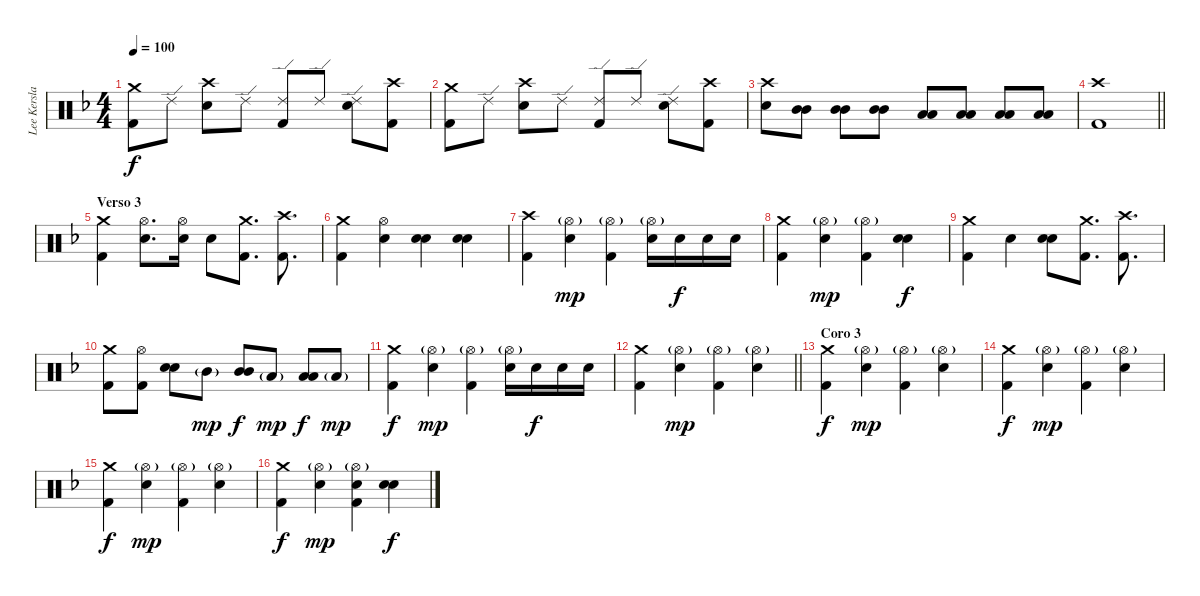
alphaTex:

\track ("Lee Kerslake - Drums" "Lee Kersla") {instrument percussion}
\staff {score}
\articulation defaults
\ts (4 4)
\tempo 100
\clef neutral
\ks dminor
("Crash medium (hit)" "Kick (hit) 2").8{dy f} "Ride (edge) 2".8 ("Crash high (hit)" "Snare (hit) 2").8 "Ride (edge) 2".8 ("Ride (edge) 2" "Kick (hit) 2").8 "Ride (edge) 2".8 ("Ride (edge) 2" "Snare (hit) 2").8 ("Crash high (hit)" "Kick (hit) 2").8 |
("Crash medium (hit)" "Kick (hit) 2").8 "Ride (edge) 2".8 ("Crash high (hit)" "Snare (hit) 2").8 "Ride (edge) 2".8 ("Ride (edge) 2" "Kick (hit) 2").8 "Ride (edge) 2".8 ("Ride (edge) 2" "Snare (hit) 2").8 ("Crash high (hit)" "Kick (hit) 2").8 |
("Crash high (hit)" "Snare (hit) 2").8 ("Mid Tom (hit)" "Mid Tom (hit)").8{bd 240} ("Mid Tom (hit)" "Mid Tom (hit)").8{bd 240} ("Mid Tom (hit)" "Mid Tom (hit)").8{bd 240} ("Low Tom (hit)" "Low Tom (hit)").8{bd 240} ("Low Tom (hit)" "Low Tom (hit)").8{bd 240} ("Low Tom (hit)" "Low Tom (hit)").8{bd 240} ("Low Tom (hit)" "Low Tom (hit)").8{bd 240} |
\barLineRight lightlight
("Crash high (hit)" "Kick (hit) 2").1 |
\section ("" "Verso 3")
("Crash medium (hit)" "Kick (hit) 2").4 ("Hi-Hat (open)" "Snare (hit) 2").8{d} ("Hi-Hat (open)" "Snare (hit) 2").16 "Snare (hit) 2".8 ("Crash medium (hit)" "Kick (hit) 2").8{d} ("Crash high (hit)" "Kick (hit) 2").8{d} |
("Crash medium (hit)" "Kick (hit) 2").4 ("Hi-Hat (open)" "Snare (hit) 2").4 ("Snare (hit) 2" "Snare (hit) 2").4{bd 240} ("Snare (hit) 2" "Snare (hit) 2").4{bd 240} |
("Crash high (hit)" "Kick (hit) 2").4 ("Hi-Hat (open)"{g} "Snare (hit) 2").4{dy mp} ("Hi-Hat (open)"{g} "Kick (hit) 2").4 ("Hi-Hat (open)"{g} "Snare (hit) 2").16 "Snare (hit) 2".16{dy f} "Snare (hit) 2".16 "Snare (hit) 2".16 |
("Crash medium (hit)" "Kick (hit) 2").4 ("Hi-Hat (open)"{g} "Snare (hit) 2").4{dy mp} ("Hi-Hat (open)"{g} "Kick (hit) 2").4 ("Snare (hit) 2" "Snare (hit) 2").4{bd 240 dy f} |
("Crash medium (hit)" "Kick (hit) 2").4 "Snare (hit) 2".4 ("Snare (hit) 2" "Snare (hit) 2").8{bd 240} ("Crash medium (hit)" "Kick (hit) 2").8{d} ("Crash high (hit)" "Kick (hit) 2").8{d} |
("Crash medium (hit)" "Kick (hit) 2").8 ("Hi-Hat (open)" "Kick (hit) 2").8 ("Snare (hit) 2" "Snare (hit) 2").8{bd 240} "Mid Tom (hit)"{g}.8{dy mp} ("Mid Tom (hit)" "Mid Tom (hit)").8{bd 240 dy f} "Low Tom (hit)"{g}.8{dy mp} ("Low Tom (hit)" "Low Tom (hit)").8{bd 240 dy f} "Low Tom (hit)"{g}.8{dy mp} |
("Crash medium (hit)" "Kick (hit) 2").4{dy f} ("Hi-Hat (open)"{g} "Snare (hit) 2").4{dy mp} ("Hi-Hat (open)"{g} "Kick (hit) 2").4 ("Hi-Hat (open)"{g} "Snare (hit) 2").16 "Snare (hit) 2".16{dy f} "Snare (hit) 2".16 "Snare (hit) 2".16 |
\barLineRight lightlight
("Crash medium (hit)" "Kick (hit) 2").4 ("Hi-Hat (open)"{g} "Snare (hit) 2").4{dy mp} ("Hi-Hat (open)"{g} "Kick (hit) 2").4 ("Hi-Hat (open)"{g} "Snare (hit) 2").4 |
\section ("" "Coro 3")
("Crash medium (hit)" "Kick (hit) 2").4{dy f} ("Hi-Hat (open)"{g} "Snare (hit) 2").4{dy mp} ("Hi-Hat (open)"{g} "Kick (hit) 2").4 ("Hi-Hat (open)"{g} "Snare (hit) 2").4 |
("Crash medium (hit)" "Kick (hit) 2").4{dy f} ("Hi-Hat (open)"{g} "Snare (hit) 2").4{dy mp} ("Hi-Hat (open)"{g} "Kick (hit) 2").4 ("Hi-Hat (open)"{g} "Snare (hit) 2").4 |
("Crash medium (hit)" "Kick (hit) 2").4{dy f} ("Hi-Hat (open)"{g} "Snare (hit) 2").4{dy mp} ("Hi-Hat (open)"{g} "Kick (hit) 2").4 ("Hi-Hat (open)"{g} "Snare (hit) 2").4 |
("Crash medium (hit)" "Kick (hit) 2").4{dy f} ("Hi-Hat (open)"{g} "Snare (hit) 2").4{dy mp} ("Hi-Hat (open)"{g} "Snare (hit) 2" "Kick (hit) 2").4 ("Snare (hit) 2" "Snare (hit) 2").4{bd 240 dy f}
